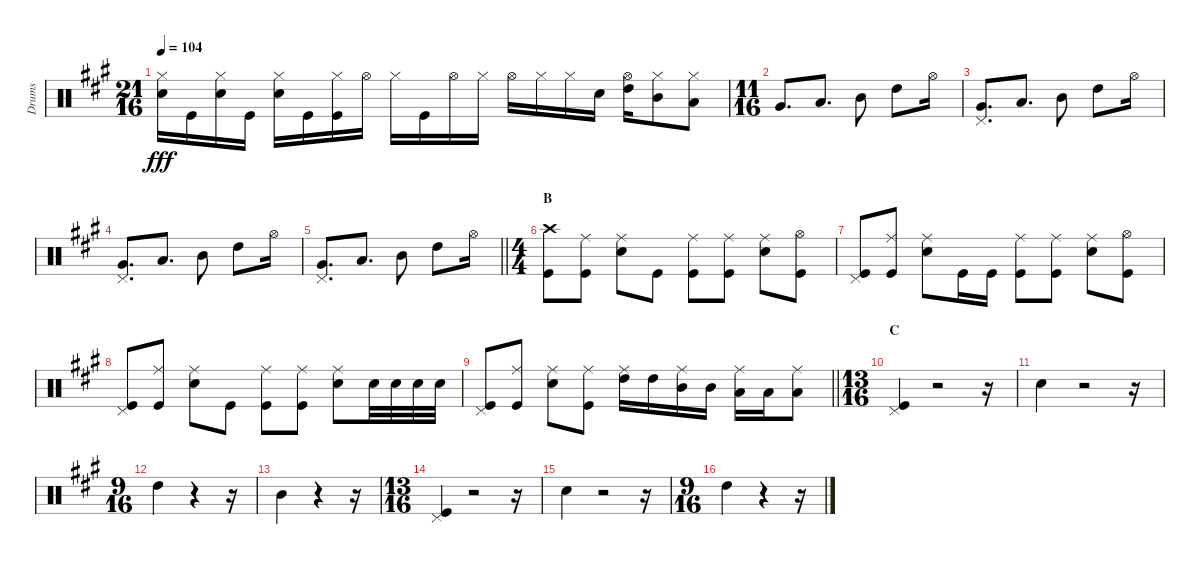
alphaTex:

\track ("Drums" "Drums") {instrument percussion}
\staff {score}
\articulation defaults
\ts (21 16)
\tempo 104
\clef neutral
\ks a
("Hi-Hat (closed)" "Snare (hit) 2").16{dy fff} "Kick (hit)".16 ("Hi-Hat (closed)" "Snare (hit) 2").16 "Kick (hit)".16 ("Hi-Hat (closed)" "Snare (hit) 2").16 "Kick (hit)".16 ("Hi-Hat (closed)" "Kick (hit)").16 "Hi-Hat (open)".16 "Hi-Hat (closed)".16 "Kick (hit)".16 "Hi-Hat (open)".16 "Hi-Hat (closed)".16 "Hi-Hat (open)".16 "Hi-Hat (closed)".16 "Hi-Hat (closed)".16 "Snare (hit) 2".16 ("Hi-Hat (open)" "High Tom (hit)").16 ("Hi-Hat (closed)" "Mid Tom (hit)").8 ("Hi-Hat (closed)" "Low Tom (hit)").8 |
\ts (11 16)
"Very Low Tom (hit)".8{d} "Low Tom (hit)".8{d} "Mid Tom (hit)".8 "High Tom (hit)".8 "Hi-Hat (open)".16 |
("Pedal Hi-Hat (hit)" "Very Low Tom (hit)").8{d} "Low Tom (hit)".8{d} "Mid Tom (hit)".8 "High Tom (hit)".8 "Hi-Hat (open)".16 |
("Pedal Hi-Hat (hit)" "Very Low Tom (hit)").8{d} "Low Tom (hit)".8{d} "Mid Tom (hit)".8 "High Tom (hit)".8 "Hi-Hat (open)".16 |
\barLineRight lightlight
("Pedal Hi-Hat (hit)" "Very Low Tom (hit)").8{d} "Low Tom (hit)".8{d} "Mid Tom (hit)".8 "High Tom (hit)".8 "Hi-Hat (open)".16 |
\ts (4 4)
\section ("" "B")
("Crash high (hit)" "Kick (hit)").8 ("Ride (middle)" "Kick (hit)").8 ("Ride (middle)" "Snare (hit) 2").8 "Kick (hit)".8 ("Ride (middle)" "Kick (hit)").8 ("Ride (middle)" "Kick (hit)").8 ("Ride (middle)" "Snare (hit) 2").8 ("Hi-Hat (open)" "Kick (hit)").8 |
("Pedal Hi-Hat (hit)" "Kick (hit)").8 ("Ride (middle)" "Kick (hit)").8 ("Ride (middle)" "Snare (hit) 2").8 "Kick (hit)".16 "Kick (hit)".16 ("Ride (middle)" "Kick (hit)").8 ("Ride (middle)" "Kick (hit)").8 ("Ride (middle)" "Snare (hit) 2").8 ("Hi-Hat (open)" "Kick (hit)").8 |
("Pedal Hi-Hat (hit)" "Kick (hit)").8 ("Ride (middle)" "Kick (hit)").8 ("Ride (middle)" "Snare (hit) 2").8 "Kick (hit)".8 ("Ride (middle)" "Kick (hit)").8 ("Ride (middle)" "Kick (hit)").8 ("Ride (middle)" "Snare (hit) 2").8 "Snare (hit) 2".32 "Snare (hit) 2".32 "Snare (hit) 2".32 "Snare (hit) 2".32 |
\barLineRight lightlight
("Pedal Hi-Hat (hit)" "Kick (hit)").8 ("Ride (middle)" "Kick (hit)").8 ("Ride (middle)" "Snare (hit) 2").8 ("Ride (middle)" "Kick (hit)").8 ("Ride (middle)" "High Tom (hit)").16 "High Tom (hit)".16 ("Ride (middle)" "Mid Tom (hit)").16 "Mid Tom (hit)".16 ("Ride (middle)" "Low Tom (hit)").16 "Low Tom (hit)".16 ("Ride (middle)" "Low Tom (hit)").8 |
\ts (13 16)
\section ("" "C")
("Pedal Hi-Hat (hit)" "Kick (hit)").4 r.2 r.16 |
"Snare (hit) 2".4 r.2 r.16 |
\ts (9 16)
"High Tom (hit)".4 r.4 r.16 |
"Mid Tom (hit)".4 r.4 r.16 |
\ts (13 16)
("Pedal Hi-Hat (hit)" "Kick (hit)").4 r.2 r.16 |
"Snare (hit) 2".4 r.2 r.16 |
\ts (9 16)
"High Tom (hit)".4 r.4 r.16
